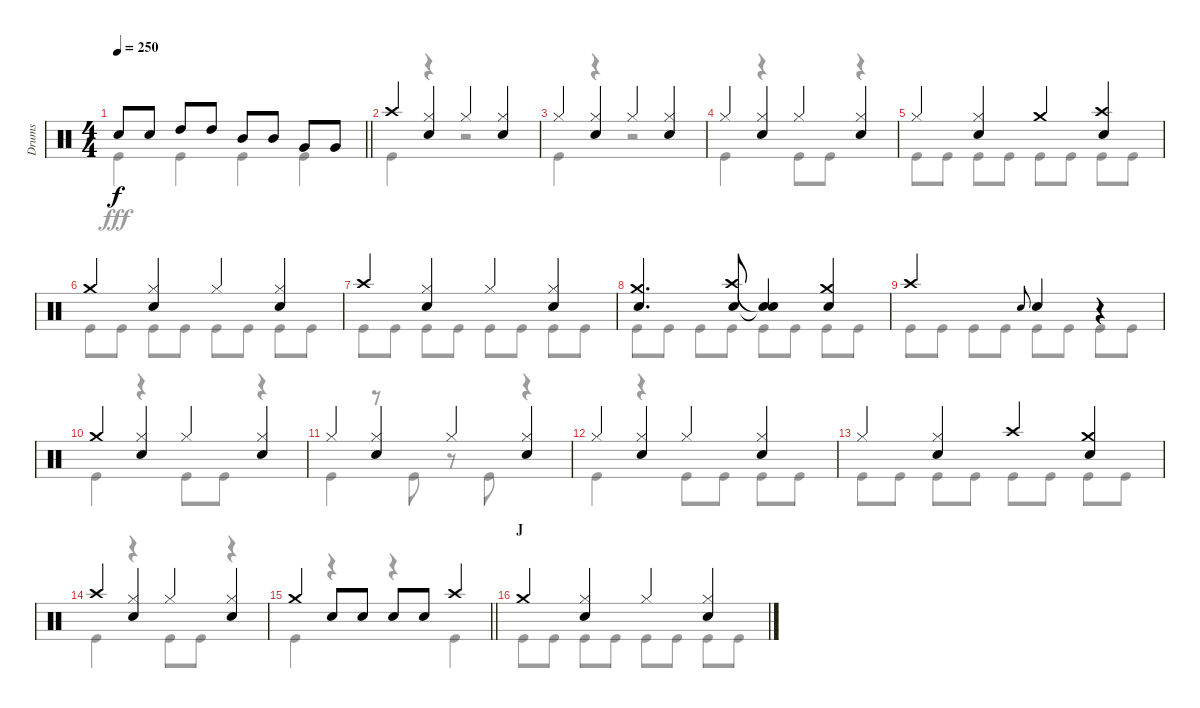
\track ("Drums" "Drums") {instrument percussion}
\staff {score}
\articulation defaults
\voice
\ts (4 4)
\tempo 250
\clef neutral
\barLineRight lightlight
\ks c "Snare (hit) 2".8{dy f} "Snare (hit) 2".8 "High Tom (hit)".8 "High Tom (hit)".8 "Mid Tom (hit)".8 "Mid Tom (hit)".8 "Very Low Tom (hit)".8 "Very Low Tom (hit)".8
|
"Crash high (hit)".4 ("Hi-Hat (closed)" "Snare (hit) 2").4 "Hi-Hat (closed)".4 ("Hi-Hat (closed)" "Snare (hit) 2").4 |
"Hi-Hat (closed)".4 ("Hi-Hat (closed)" "Snare (hit) 2").4 "Hi-Hat (closed)".4 ("Hi-Hat (closed)" "Snare (hit) 2").4 |
"Hi-Hat (closed)".4 ("Hi-Hat (closed)" "Snare (hit) 2").4 "Hi-Hat (closed)".4 ("Hi-Hat (closed)" "Snare (hit) 2").4 |
"Hi-Hat (closed)".4 ("Hi-Hat (closed)" "Snare (hit) 2").4 "Crash medium (hit)".4 ("Crash high (hit)" "Snare (hit) 2").4 |
"Crash medium (hit)".4 ("Hi-Hat (closed)" "Snare (hit) 2").4 "Hi-Hat (closed)".4 ("Hi-Hat (closed)" "Snare (hit) 2").4 |
"Crash high (hit)".4 ("Hi-Hat (closed)" "Snare (hit) 2").4 "Hi-Hat (closed)".4 ("Hi-Hat (closed)" "Snare (hit) 2").4 |
("Crash medium (hit)" "Snare (hit) 2").4{d} ("Crash high (hit)" "Snare (hit) 2").8 ("Snare (hit)"{t} "Snare (hit) 2"{t}).4 ("Crash medium (hit)" "Snare (hit) 2").4 |
"Crash high (hit)".2 "Snare (hit) 2".8{gr onbeat} "Snare (hit) 2".4 r.4 |
"Crash medium (hit)".4 ("Hi-Hat (closed)" "Snare (hit) 2").4 "Hi-Hat (closed)".4 ("Hi-Hat (closed)" "Snare (hit) 2").4 |
"Hi-Hat (closed)".4 ("Hi-Hat (closed)" "Snare (hit) 2").4 "Hi-Hat (closed)".4 ("Hi-Hat (closed)" "Snare (hit) 2").4 |
"Hi-Hat (closed)".4 ("Hi-Hat (closed)" "Snare (hit) 2").4 "Hi-Hat (closed)".4 ("Hi-Hat (closed)" "Snare (hit) 2").4 |
"Hi-Hat (closed)".4 ("Hi-Hat (closed)" "Snare (hit) 2").4 "Crash high (hit)".4 ("Crash medium (hit)" "Snare (hit) 2").4 |
"Crash high (hit)".4 ("Hi-Hat (closed)" "Snare (hit) 2").4 "Hi-Hat (closed)".4 ("Hi-Hat (closed)" "Snare (hit) 2").4 |
\barLineRight lightlight "Crash medium (hit)".4 "Snare (hit) 2".8 "Snare (hit) 2".8 "Snare (hit) 2".8 "Snare (hit) 2".8 "Crash high (hit)".4
|
\section ("" "J")
"Crash medium (hit)".4 ("Hi-Hat (closed)" "Snare (hit) 2").4 "Hi-Hat (closed)".4 ("Hi-Hat (closed)" "Snare (hit) 2").4
\voice
\clef neutral
\ottava regular
\simile none
\barLineRight lightlight
\ks c "Kick (hit)".4{dy fff} "Kick (hit)".4 "Kick (hit)".4 "Kick (hit)".4
|
"Kick (hit)".4 r.4 r.2 |
"Kick (hit)".4 r.4 r.2 |
"Kick (hit)".4 r.4 "Kick (hit)".8 "Kick (hit)".8 r.4 |
"Kick (hit)".8 "Kick (hit)".8 "Kick (hit)".8 "Kick (hit)".8 "Kick (hit)".8 "Kick (hit)".8 "Kick (hit)".8 "Kick (hit)".8 |
"Kick (hit)".8 "Kick (hit)".8 "Kick (hit)".8 "Kick (hit)".8 "Kick (hit)".8 "Kick (hit)".8 "Kick (hit)".8 "Kick (hit)".8 |
"Kick (hit)".8 "Kick (hit)".8 "Kick (hit)".8 "Kick (hit)".8 "Kick (hit)".8 "Kick (hit)".8 "Kick (hit)".8 "Kick (hit)".8 |
"Kick (hit)".8 "Kick (hit)".8 "Kick (hit)".8 "Kick (hit)".8 "Kick (hit)".8 "Kick (hit)".8 "Kick (hit)".8 "Kick (hit)".8 |
"Kick (hit)".8 "Kick (hit)".8 "Kick (hit)".8 "Kick (hit)".8 "Kick (hit)".8 "Kick (hit)".8 "Kick (hit)".8 "Kick (hit)".8 |
"Kick (hit)".4 r.4 "Kick (hit)".8 "Kick (hit)".8 r.4 |
"Kick (hit)".4 r.8 "Kick (hit)".8 r.8 "Kick (hit)".8 r.4 |
"Kick (hit)".4 r.4 "Kick (hit)".8 "Kick (hit)".8 "Kick (hit)".8 "Kick (hit)".8 |
"Kick (hit)".8 "Kick (hit)".8 "Kick (hit)".8 "Kick (hit)".8 "Kick (hit)".8 "Kick (hit)".8 "Kick (hit)".8 "Kick (hit)".8 |
"Kick (hit)".4 r.4 "Kick (hit)".8 "Kick (hit)".8 r.4 |
\barLineRight lightlight "Kick (hit)".4
r.4 r.4 "Kick (hit)".4 |
"Kick (hit)".8 "Kick (hit)".8 "Kick (hit)".8 "Kick (hit)".8 "Kick (hit)".8 "Kick (hit)".8 "Kick (hit)".8 "Kick (hit)".8
